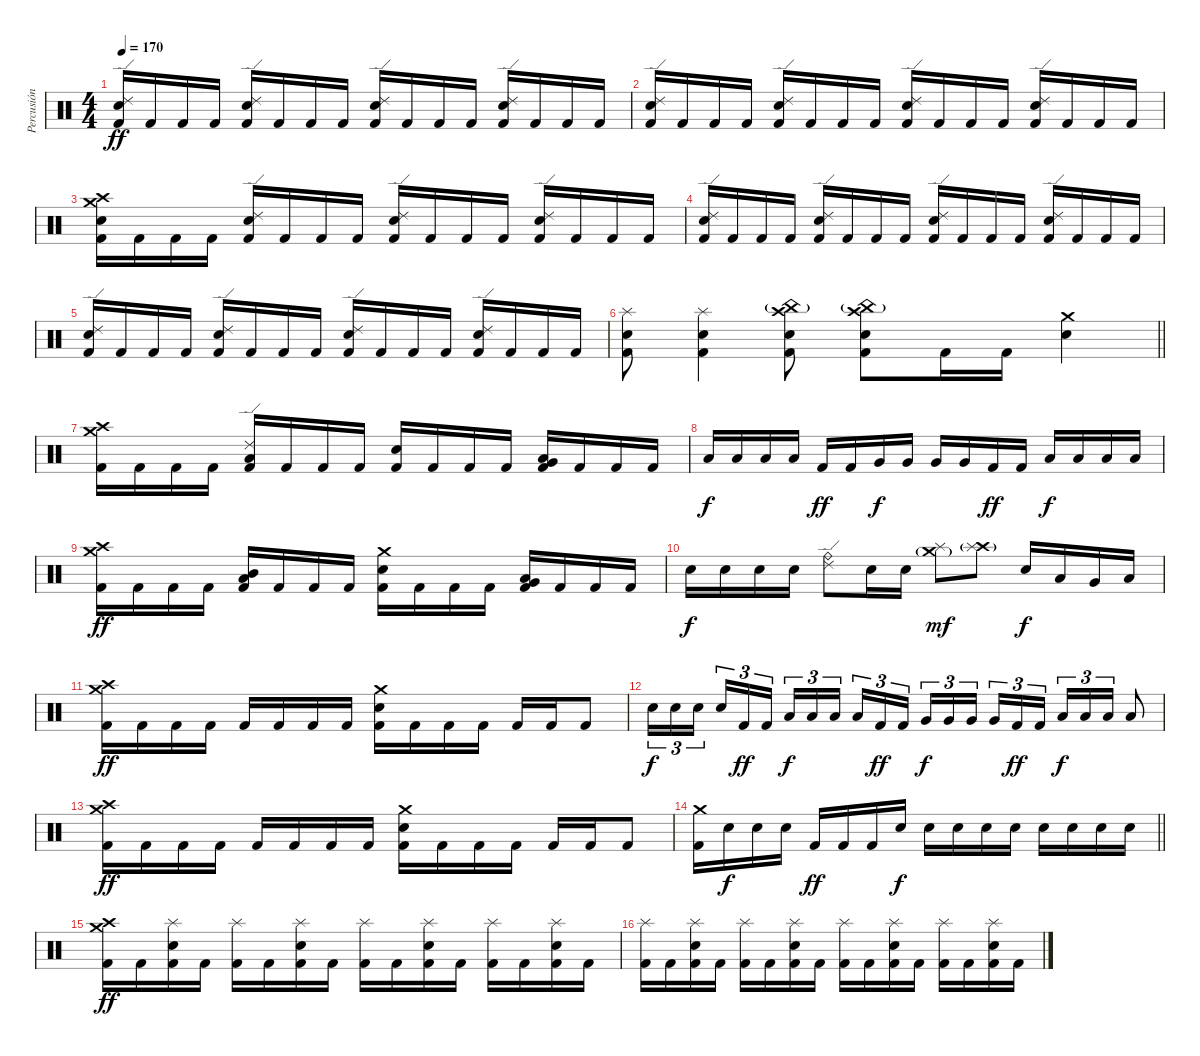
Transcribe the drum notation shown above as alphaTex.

\track ("Percusión" "Percusión") {instrument percussion}
\staff {score}
\articulation defaults
\ts (4 4)
\tempo 170
\clef neutral
\ks c
("Ride (edge) 2" "Snare (hit) 2" "Kick (hit) 2").16{dy ff} "Kick (hit) 2".16 "Kick (hit) 2".16 "Kick (hit) 2".16 ("Ride (edge) 2" "Snare (hit) 2" "Kick (hit) 2").16 "Kick (hit) 2".16 "Kick (hit) 2".16 "Kick (hit) 2".16 ("Ride (edge) 2" "Snare (hit) 2" "Kick (hit) 2").16 "Kick (hit) 2".16 "Kick (hit) 2".16 "Kick (hit) 2".16 ("Ride (edge) 2" "Snare (hit) 2" "Kick (hit) 2").16 "Kick (hit) 2".16 "Kick (hit) 2".16 "Kick (hit) 2".16 |
("Ride (edge) 2" "Snare (hit) 2" "Kick (hit) 2").16 "Kick (hit) 2".16 "Kick (hit) 2".16 "Kick (hit) 2".16 ("Ride (edge) 2" "Snare (hit) 2" "Kick (hit) 2").16 "Kick (hit) 2".16 "Kick (hit) 2".16 "Kick (hit) 2".16 ("Ride (edge) 2" "Snare (hit) 2" "Kick (hit) 2").16 "Kick (hit) 2".16 "Kick (hit) 2".16 "Kick (hit) 2".16 ("Ride (edge) 2" "Snare (hit) 2" "Kick (hit) 2").16 "Kick (hit) 2".16 "Kick (hit) 2".16 "Kick (hit) 2".16 |
("Crash medium (hit)" "Crash high (hit)" "Snare (hit) 2" "Kick (hit) 2").16 "Kick (hit) 2".16 "Kick (hit) 2".16 "Kick (hit) 2".16 ("Ride (edge) 2" "Snare (hit) 2" "Kick (hit) 2").16 "Kick (hit) 2".16 "Kick (hit) 2".16 "Kick (hit) 2".16 ("Ride (edge) 2" "Snare (hit) 2" "Kick (hit) 2").16 "Kick (hit) 2".16 "Kick (hit) 2".16 "Kick (hit) 2".16 ("Ride (edge) 2" "Snare (hit) 2" "Kick (hit) 2").16 "Kick (hit) 2".16 "Kick (hit) 2".16 "Kick (hit) 2".16 |
("Ride (edge) 2" "Snare (hit) 2" "Kick (hit) 2").16 "Kick (hit) 2".16 "Kick (hit) 2".16 "Kick (hit) 2".16 ("Ride (edge) 2" "Snare (hit) 2" "Kick (hit) 2").16 "Kick (hit) 2".16 "Kick (hit) 2".16 "Kick (hit) 2".16 ("Ride (edge) 2" "Snare (hit) 2" "Kick (hit) 2").16 "Kick (hit) 2".16 "Kick (hit) 2".16 "Kick (hit) 2".16 ("Ride (edge) 2" "Snare (hit) 2" "Kick (hit) 2").16 "Kick (hit) 2".16 "Kick (hit) 2".16 "Kick (hit) 2".16 |
("Ride (edge) 2" "Snare (hit) 2" "Kick (hit) 2").16 "Kick (hit) 2".16 "Kick (hit) 2".16 "Kick (hit) 2".16 ("Ride (edge) 2" "Snare (hit) 2" "Kick (hit) 2").16 "Kick (hit) 2".16 "Kick (hit) 2".16 "Kick (hit) 2".16 ("Ride (edge) 2" "Snare (hit) 2" "Kick (hit) 2").16 "Kick (hit) 2".16 "Kick (hit) 2".16 "Kick (hit) 2".16 ("Ride (edge) 2" "Snare (hit) 2" "Kick (hit) 2").16 "Kick (hit) 2".16 "Kick (hit) 2".16 "Kick (hit) 2".16 |
\barLineRight lightlight
("Splash (hit)" "Snare (hit) 2" "Kick (hit) 2").8 ("Splash (hit)" "Snare (hit) 2" "Kick (hit) 2").4 ("Crash high (hit)" "China (hit)"{g} "Snare (hit) 2" "Kick (hit) 2").8 ("Crash high (hit)" "China (hit)"{g} "Snare (hit) 2" "Kick (hit) 2").8 "Kick (hit) 2".16 "Kick (hit) 2".16 ("Crash medium (hit)" "Snare (hit) 2").4 |
("Crash medium (hit)" "Crash high (hit)" "Kick (hit) 2").16 "Kick (hit) 2".16 "Kick (hit) 2".16 "Kick (hit) 2".16 ("Ride (edge) 2" "Low Tom (hit)" "Kick (hit) 2").16 "Kick (hit) 2".16 "Kick (hit) 2".16 "Kick (hit) 2".16 ("Snare (hit) 2" "Kick (hit) 2").16 "Kick (hit) 2".16 "Kick (hit) 2".16 "Kick (hit) 2".16 ("Low Floor Tom (hit)" "Very Low Tom (hit)" "Kick (hit) 2").16 "Kick (hit) 2".16 "Kick (hit) 2".16 "Kick (hit) 2".16 |
"Low Tom (hit)".16{dy f} "Low Tom (hit)".16 "Low Tom (hit)".16 "Low Tom (hit)".16 "Kick (hit) 2".16{dy ff} "Kick (hit) 2".16 "Very Low Tom (hit)".16{dy f} "Very Low Tom (hit)".16 "Very Low Tom (hit)".16 "Very Low Tom (hit)".16 "Kick (hit) 2".16{dy ff} "Kick (hit) 2".16 "Low Floor Tom (hit)".16{dy f} "Low Floor Tom (hit)".16 "Low Floor Tom (hit)".16 "Low Floor Tom (hit)".16 |
("Crash medium (hit)" "Crash high (hit)" "Kick (hit) 2").16{dy ff} "Kick (hit) 2".16 "Kick (hit) 2".16 "Kick (hit) 2".16 ("Low Tom (hit)" "Mid Tom (hit)" "Kick (hit) 2").16 "Kick (hit) 2".16 "Kick (hit) 2".16 "Kick (hit) 2".16 ("Crash medium (hit)" "Snare (hit) 2" "Kick (hit) 2").16 "Kick (hit) 2".16 "Kick (hit) 2".16 "Kick (hit) 2".16 ("Low Floor Tom (hit)" "Very Low Tom (hit)" "Kick (hit) 2").16 "Kick (hit) 2".16 "Kick (hit) 2".16 "Kick (hit) 2".16 |
"Snare (hit) 2".16{dy f} "Snare (hit) 2".16 "Snare (hit) 2".16 "Snare (hit) 2".16 ("Ride (edge) 2" "Ride (bell)").8 "Snare (hit) 2".16 "Snare (hit) 2".16 ("Crash medium (hit)"{g} "Splash (hit)").8{dy mf} ("Crash high (hit)"{g} "Splash (hit)").8 "Snare (hit) 2".16{dy f} "Low Tom (hit)".16 "Very Low Tom (hit)".16 "Low Floor Tom (hit)".16 |
("Crash medium (hit)" "Crash high (hit)" "Kick (hit) 2").16{dy ff} "Kick (hit) 2".16 "Kick (hit) 2".16 "Kick (hit) 2".16 "Kick (hit) 2".16 "Kick (hit) 2".16 "Kick (hit) 2".16 "Kick (hit) 2".16 ("Crash medium (hit)" "Snare (hit) 2" "Kick (hit) 2").16 "Kick (hit) 2".16 "Kick (hit) 2".16 "Kick (hit) 2".16 "Kick (hit) 2".16 "Kick (hit) 2".16 "Kick (hit) 2".8 |
"Snare (hit) 2".16{tu (3 2) dy f} "Snare (hit) 2".16{tu (3 2)} "Snare (hit) 2".16{tu (3 2) beam splitsecondary} "Snare (hit) 2".16{tu (3 2)} "Kick (hit) 2".16{tu (3 2) dy ff} "Kick (hit) 2".16{tu (3 2)} "Low Tom (hit)".16{tu (3 2) dy f} "Low Tom (hit)".16{tu (3 2)} "Low Tom (hit)".16{tu (3 2) beam splitsecondary} "Low Tom (hit)".16{tu (3 2)} "Kick (hit) 2".16{tu (3 2) dy ff} "Kick (hit) 2".16{tu (3 2)} "Very Low Tom (hit)".16{tu (3 2) dy f} "Very Low Tom (hit)".16{tu (3 2)} "Very Low Tom (hit)".16{tu (3 2) beam splitsecondary} "Very Low Tom (hit)".16{tu (3 2)} "Kick (hit) 2".16{tu (3 2) dy ff} "Kick (hit) 2".16{tu (3 2)} "Low Floor Tom (hit)".16{tu (3 2) dy f} "Low Floor Tom (hit)".16{tu (3 2)} "Low Floor Tom (hit)".16{tu (3 2)} "Low Floor Tom (hit)".8 |
("Crash medium (hit)" "Crash high (hit)" "Kick (hit) 2").16{dy ff} "Kick (hit) 2".16 "Kick (hit) 2".16 "Kick (hit) 2".16 "Kick (hit) 2".16 "Kick (hit) 2".16 "Kick (hit) 2".16 "Kick (hit) 2".16 ("Crash medium (hit)" "Snare (hit) 2" "Kick (hit) 2").16 "Kick (hit) 2".16 "Kick (hit) 2".16 "Kick (hit) 2".16 "Kick (hit) 2".16 "Kick (hit) 2".16 "Kick (hit) 2".8 |
\barLineRight lightlight
("Crash medium (hit)" "Kick (hit) 2").16 "Snare (hit) 2".16{dy f} "Snare (hit) 2".16 "Snare (hit) 2".16 "Kick (hit) 2".16{dy ff} "Kick (hit) 2".16 "Kick (hit) 2".16 "Snare (hit) 2".16{dy f} "Snare (hit) 2".16 "Snare (hit) 2".16 "Snare (hit) 2".16 "Snare (hit) 2".16 "Snare (hit) 2".16 "Snare (hit) 2".16 "Snare (hit) 2".16 "Snare (hit) 2".16 |
("Crash medium (hit)" "Crash high (hit)" "Kick (hit) 2").16{dy ff} "Kick (hit) 2".16 ("Splash (hit)" "Snare (hit) 2" "Kick (hit) 2").16 "Kick (hit) 2".16 ("Splash (hit)" "Kick (hit) 2").16 "Kick (hit) 2".16 ("Splash (hit)" "Snare (hit) 2" "Kick (hit) 2").16 "Kick (hit) 2".16 ("Splash (hit)" "Kick (hit) 2").16 "Kick (hit) 2".16 ("Splash (hit)" "Snare (hit) 2" "Kick (hit) 2").16 "Kick (hit) 2".16 ("Splash (hit)" "Kick (hit) 2").16 "Kick (hit) 2".16 ("Splash (hit)" "Snare (hit) 2" "Kick (hit) 2").16 "Kick (hit) 2".16 |
("Splash (hit)" "Kick (hit) 2").16 "Kick (hit) 2".16 ("Splash (hit)" "Snare (hit) 2" "Kick (hit) 2").16 "Kick (hit) 2".16 ("Splash (hit)" "Kick (hit) 2").16 "Kick (hit) 2".16 ("Splash (hit)" "Snare (hit) 2" "Kick (hit) 2").16 "Kick (hit) 2".16 ("Splash (hit)" "Kick (hit) 2").16 "Kick (hit) 2".16 ("Splash (hit)" "Snare (hit) 2" "Kick (hit) 2").16 "Kick (hit) 2".16 ("Splash (hit)" "Kick (hit) 2").16 "Kick (hit) 2".16 ("Splash (hit)" "Snare (hit) 2" "Kick (hit) 2").16 "Kick (hit) 2".16
